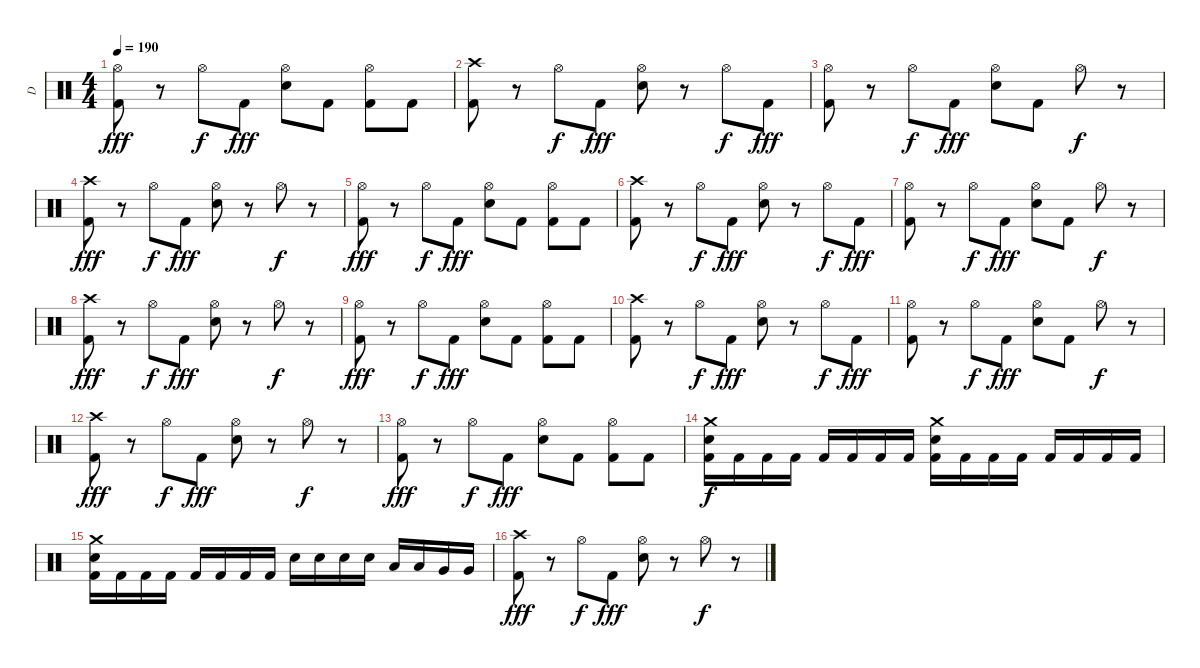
\track ("D" "D") {instrument percussion}
\staff {score}
\articulation defaults
\ts (4 4)
\tempo 190
\clef neutral
\ks c
("Hi-Hat (open)" "Kick (hit) 2").8{dy fff} r.8 "Hi-Hat (open)".8{dy f} "Kick (hit) 2".8{dy fff} ("Hi-Hat (open)" "Electric Snare (hit)").8 "Kick (hit) 2".8 ("Hi-Hat (open)" "Kick (hit) 2").8 "Kick (hit) 2".8 |
("Crash high (hit)" "Kick (hit) 2").8 r.8 "Hi-Hat (open)".8{dy f} "Kick (hit) 2".8{dy fff} ("Hi-Hat (open)" "Electric Snare (hit)").8 r.8 "Hi-Hat (open)".8{dy f} "Kick (hit) 2".8{dy fff} |
("Hi-Hat (open)" "Kick (hit) 2").8 r.8 "Hi-Hat (open)".8{dy f} "Kick (hit) 2".8{dy fff} ("Hi-Hat (open)" "Electric Snare (hit)").8 "Kick (hit) 2".8 "Hi-Hat (open)".8{dy f} r.8 |
("Crash high (hit)" "Kick (hit) 2").8{dy fff} r.8 "Hi-Hat (open)".8{dy f} "Kick (hit) 2".8{dy fff} ("Hi-Hat (open)" "Electric Snare (hit)").8 r.8 "Hi-Hat (open)".8{dy f} r.8 |
("Hi-Hat (open)" "Kick (hit) 2").8{dy fff} r.8 "Hi-Hat (open)".8{dy f} "Kick (hit) 2".8{dy fff} ("Hi-Hat (open)" "Electric Snare (hit)").8 "Kick (hit) 2".8 ("Hi-Hat (open)" "Kick (hit) 2").8 "Kick (hit) 2".8 |
("Crash high (hit)" "Kick (hit) 2").8 r.8 "Hi-Hat (open)".8{dy f} "Kick (hit) 2".8{dy fff} ("Hi-Hat (open)" "Electric Snare (hit)").8 r.8 "Hi-Hat (open)".8{dy f} "Kick (hit) 2".8{dy fff} |
("Hi-Hat (open)" "Kick (hit) 2").8 r.8 "Hi-Hat (open)".8{dy f} "Kick (hit) 2".8{dy fff} ("Hi-Hat (open)" "Electric Snare (hit)").8 "Kick (hit) 2".8 "Hi-Hat (open)".8{dy f} r.8 |
("Crash high (hit)" "Kick (hit) 2").8{dy fff} r.8 "Hi-Hat (open)".8{dy f} "Kick (hit) 2".8{dy fff} ("Hi-Hat (open)" "Electric Snare (hit)").8 r.8 "Hi-Hat (open)".8{dy f} r.8 |
("Hi-Hat (open)" "Kick (hit) 2").8{dy fff} r.8 "Hi-Hat (open)".8{dy f} "Kick (hit) 2".8{dy fff} ("Hi-Hat (open)" "Electric Snare (hit)").8 "Kick (hit) 2".8 ("Hi-Hat (open)" "Kick (hit) 2").8 "Kick (hit) 2".8 |
("Crash high (hit)" "Kick (hit) 2").8 r.8 "Hi-Hat (open)".8{dy f} "Kick (hit) 2".8{dy fff} ("Hi-Hat (open)" "Electric Snare (hit)").8 r.8 "Hi-Hat (open)".8{dy f} "Kick (hit) 2".8{dy fff} |
("Hi-Hat (open)" "Kick (hit) 2").8 r.8 "Hi-Hat (open)".8{dy f} "Kick (hit) 2".8{dy fff} ("Hi-Hat (open)" "Electric Snare (hit)").8 "Kick (hit) 2".8 "Hi-Hat (open)".8{dy f} r.8 |
("Crash high (hit)" "Kick (hit) 2").8{dy fff} r.8 "Hi-Hat (open)".8{dy f} "Kick (hit) 2".8{dy fff} ("Hi-Hat (open)" "Electric Snare (hit)").8 r.8 "Hi-Hat (open)".8{dy f} r.8 |
("Hi-Hat (open)" "Kick (hit) 2").8{dy fff} r.8 "Hi-Hat (open)".8{dy f} "Kick (hit) 2".8{dy fff} ("Hi-Hat (open)" "Electric Snare (hit)").8 "Kick (hit) 2".8 ("Hi-Hat (open)" "Kick (hit) 2").8 "Kick (hit) 2".8 |
("Crash medium (hit)" "Electric Snare (hit)" "Kick (hit) 2").16{dy f} "Kick (hit) 2".16 "Kick (hit) 2".16 "Kick (hit) 2".16 "Kick (hit) 2".16 "Kick (hit) 2".16 "Kick (hit) 2".16 "Kick (hit) 2".16 ("Crash medium (hit)" "Electric Snare (hit)" "Kick (hit) 2").16 "Kick (hit) 2".16 "Kick (hit) 2".16 "Kick (hit) 2".16 "Kick (hit) 2".16 "Kick (hit) 2".16 "Kick (hit) 2".16 "Kick (hit) 2".16 |
("Crash medium (hit)" "Electric Snare (hit)" "Kick (hit) 2").16 "Kick (hit) 2".16 "Kick (hit) 2".16 "Kick (hit) 2".16 "Kick (hit) 2".16 "Kick (hit) 2".16 "Kick (hit) 2".16 "Kick (hit) 2".16 "Electric Snare (hit)".16 "Electric Snare (hit)".16 "Electric Snare (hit)".16 "Electric Snare (hit)".16 "Low Tom (hit)".16 "Low Tom (hit)".16 "Very Low Tom (hit)".16 "Very Low Tom (hit)".16 |
("Crash high (hit)" "Kick (hit) 2").8{dy fff} r.8 "Hi-Hat (open)".8{dy f} "Kick (hit) 2".8{dy fff} ("Hi-Hat (open)" "Electric Snare (hit)").8 r.8 "Hi-Hat (open)".8{dy f} r.8
